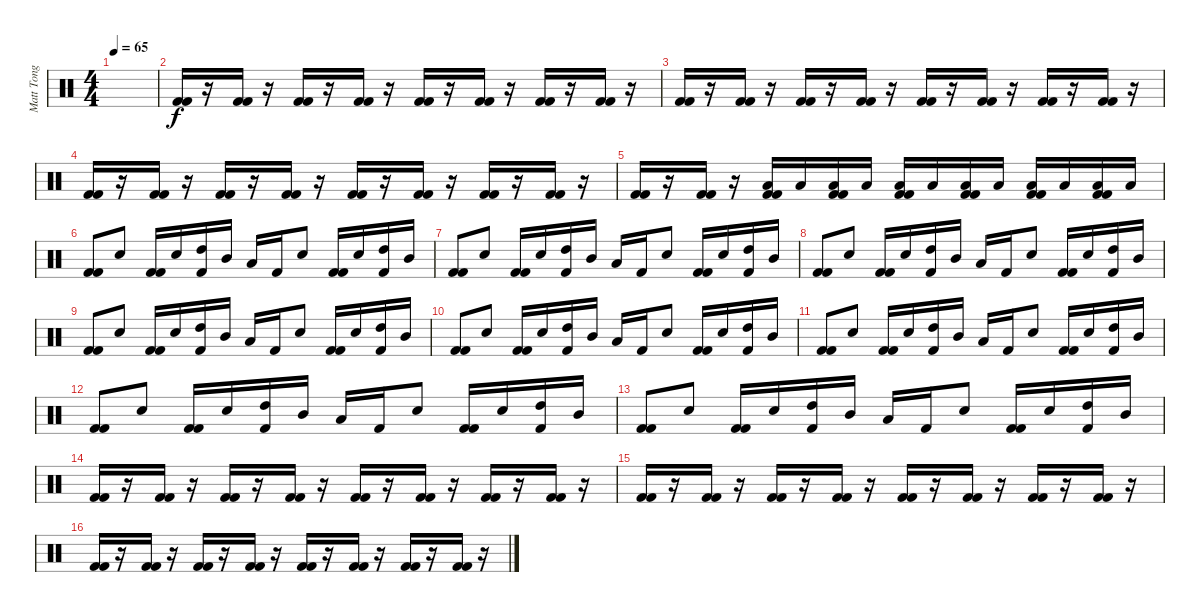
\track ("Matt Tong" "Matt Tong") {instrument percussion}
\staff {score}
\articulation defaults
\ts (4 4)
\tempo 65
\clef neutral
\ks c
|
("Kick (hit) 2" "Kick (hit) 2").16 r.16 ("Kick (hit) 2" "Kick (hit) 2").16 r.16 ("Kick (hit) 2" "Kick (hit) 2").16 r.16 ("Kick (hit) 2" "Kick (hit) 2").16 r.16 ("Kick (hit) 2" "Kick (hit) 2").16 r.16 ("Kick (hit) 2" "Kick (hit) 2").16 r.16 ("Kick (hit) 2" "Kick (hit) 2").16 r.16 ("Kick (hit) 2" "Kick (hit) 2").16 r.16 |
("Kick (hit) 2" "Kick (hit) 2").16 r.16 ("Kick (hit) 2" "Kick (hit) 2").16 r.16 ("Kick (hit) 2" "Kick (hit) 2").16 r.16 ("Kick (hit) 2" "Kick (hit) 2").16 r.16 ("Kick (hit) 2" "Kick (hit) 2").16 r.16 ("Kick (hit) 2" "Kick (hit) 2").16 r.16 ("Kick (hit) 2" "Kick (hit) 2").16 r.16 ("Kick (hit) 2" "Kick (hit) 2").16 r.16 |
("Kick (hit) 2" "Kick (hit) 2").16 r.16 ("Kick (hit) 2" "Kick (hit) 2").16 r.16 ("Kick (hit) 2" "Kick (hit) 2").16 r.16 ("Kick (hit) 2" "Kick (hit) 2").16 r.16 ("Kick (hit) 2" "Kick (hit) 2").16 r.16 ("Kick (hit) 2" "Kick (hit) 2").16 r.16 ("Kick (hit) 2" "Kick (hit) 2").16 r.16 ("Kick (hit) 2" "Kick (hit) 2").16 r.16 |
("Kick (hit) 2" "Kick (hit) 2").16 r.16 ("Kick (hit) 2" "Kick (hit) 2").16 r.16 ("Low Tom (hit)" "Kick (hit) 2" "Kick (hit) 2").16 "Low Tom (hit)".16 ("Low Tom (hit)" "Kick (hit) 2" "Kick (hit) 2").16 "Low Tom (hit)".16 ("Low Tom (hit)" "Kick (hit) 2" "Kick (hit) 2").16 "Low Tom (hit)".16 ("Low Tom (hit)" "Kick (hit) 2" "Kick (hit) 2").16 "Low Tom (hit)".16 ("Low Tom (hit)" "Kick (hit) 2" "Kick (hit) 2").16 "Low Tom (hit)".16 ("Low Tom (hit)" "Kick (hit) 2" "Kick (hit) 2").16 "Low Tom (hit)".16 |
("Kick (hit) 2" "Kick (hit) 2").8 "Snare (hit) 2".8 ("Kick (hit) 2" "Kick (hit) 2").16 "Snare (hit) 2".16 ("High Tom (hit)" "Kick (hit) 2").16 "Mid Tom (hit)".16 "Low Tom (hit)".16 "Kick (hit) 2".16 "Snare (hit) 2".8 ("Kick (hit) 2" "Kick (hit) 2").16 "Snare (hit) 2".16 ("High Tom (hit)" "Kick (hit) 2").16 "Mid Tom (hit)".16 |
("Kick (hit) 2" "Kick (hit) 2").8 "Snare (hit) 2".8 ("Kick (hit) 2" "Kick (hit) 2").16 "Snare (hit) 2".16 ("High Tom (hit)" "Kick (hit) 2").16 "Mid Tom (hit)".16 "Low Tom (hit)".16 "Kick (hit) 2".16 "Snare (hit) 2".8 ("Kick (hit) 2" "Kick (hit) 2").16 "Snare (hit) 2".16 ("High Tom (hit)" "Kick (hit) 2").16 "Mid Tom (hit)".16 |
("Kick (hit) 2" "Kick (hit) 2").8 "Snare (hit) 2".8 ("Kick (hit) 2" "Kick (hit) 2").16 "Snare (hit) 2".16 ("High Tom (hit)" "Kick (hit) 2").16 "Mid Tom (hit)".16 "Low Tom (hit)".16 "Kick (hit) 2".16 "Snare (hit) 2".8 ("Kick (hit) 2" "Kick (hit) 2").16 "Snare (hit) 2".16 ("High Tom (hit)" "Kick (hit) 2").16 "Mid Tom (hit)".16 |
("Kick (hit) 2" "Kick (hit) 2").8 "Snare (hit) 2".8 ("Kick (hit) 2" "Kick (hit) 2").16 "Snare (hit) 2".16 ("High Tom (hit)" "Kick (hit) 2").16 "Mid Tom (hit)".16 "Low Tom (hit)".16 "Kick (hit) 2".16 "Snare (hit) 2".8 ("Kick (hit) 2" "Kick (hit) 2").16 "Snare (hit) 2".16 ("High Tom (hit)" "Kick (hit) 2").16 "Mid Tom (hit)".16 |
("Kick (hit) 2" "Kick (hit) 2").8 "Snare (hit) 2".8 ("Kick (hit) 2" "Kick (hit) 2").16 "Snare (hit) 2".16 ("High Tom (hit)" "Kick (hit) 2").16 "Mid Tom (hit)".16 "Low Tom (hit)".16 "Kick (hit) 2".16 "Snare (hit) 2".8 ("Kick (hit) 2" "Kick (hit) 2").16 "Snare (hit) 2".16 ("High Tom (hit)" "Kick (hit) 2").16 "Mid Tom (hit)".16 |
("Kick (hit) 2" "Kick (hit) 2").8 "Snare (hit) 2".8 ("Kick (hit) 2" "Kick (hit) 2").16 "Snare (hit) 2".16 ("High Tom (hit)" "Kick (hit) 2").16 "Mid Tom (hit)".16 "Low Tom (hit)".16 "Kick (hit) 2".16 "Snare (hit) 2".8 ("Kick (hit) 2" "Kick (hit) 2").16 "Snare (hit) 2".16 ("High Tom (hit)" "Kick (hit) 2").16 "Mid Tom (hit)".16 |
("Kick (hit) 2" "Kick (hit) 2").8 "Snare (hit) 2".8 ("Kick (hit) 2" "Kick (hit) 2").16 "Snare (hit) 2".16 ("High Tom (hit)" "Kick (hit) 2").16 "Mid Tom (hit)".16 "Low Tom (hit)".16 "Kick (hit) 2".16 "Snare (hit) 2".8 ("Kick (hit) 2" "Kick (hit) 2").16 "Snare (hit) 2".16 ("High Tom (hit)" "Kick (hit) 2").16 "Mid Tom (hit)".16 |
("Kick (hit) 2" "Kick (hit) 2").8 "Snare (hit) 2".8 ("Kick (hit) 2" "Kick (hit) 2").16 "Snare (hit) 2".16 ("High Tom (hit)" "Kick (hit) 2").16 "Mid Tom (hit)".16 "Low Tom (hit)".16 "Kick (hit) 2".16 "Snare (hit) 2".8 ("Kick (hit) 2" "Kick (hit) 2").16 "Snare (hit) 2".16 ("High Tom (hit)" "Kick (hit) 2").16 "Mid Tom (hit)".16 |
("Kick (hit) 2" "Kick (hit) 2").16 r.16 ("Kick (hit) 2" "Kick (hit) 2").16 r.16 ("Kick (hit) 2" "Kick (hit) 2").16 r.16 ("Kick (hit) 2" "Kick (hit) 2").16 r.16 ("Kick (hit) 2" "Kick (hit) 2").16 r.16 ("Kick (hit) 2" "Kick (hit) 2").16 r.16 ("Kick (hit) 2" "Kick (hit) 2").16 r.16 ("Kick (hit) 2" "Kick (hit) 2").16 r.16 |
("Kick (hit) 2" "Kick (hit) 2").16 r.16 ("Kick (hit) 2" "Kick (hit) 2").16 r.16 ("Kick (hit) 2" "Kick (hit) 2").16 r.16 ("Kick (hit) 2" "Kick (hit) 2").16 r.16 ("Kick (hit) 2" "Kick (hit) 2").16 r.16 ("Kick (hit) 2" "Kick (hit) 2").16 r.16 ("Kick (hit) 2" "Kick (hit) 2").16 r.16 ("Kick (hit) 2" "Kick (hit) 2").16 r.16 |
("Kick (hit) 2" "Kick (hit) 2").16 r.16 ("Kick (hit) 2" "Kick (hit) 2").16 r.16 ("Kick (hit) 2" "Kick (hit) 2").16 r.16 ("Kick (hit) 2" "Kick (hit) 2").16 r.16 ("Kick (hit) 2" "Kick (hit) 2").16 r.16 ("Kick (hit) 2" "Kick (hit) 2").16 r.16 ("Kick (hit) 2" "Kick (hit) 2").16 r.16 ("Kick (hit) 2" "Kick (hit) 2").16 r.16
